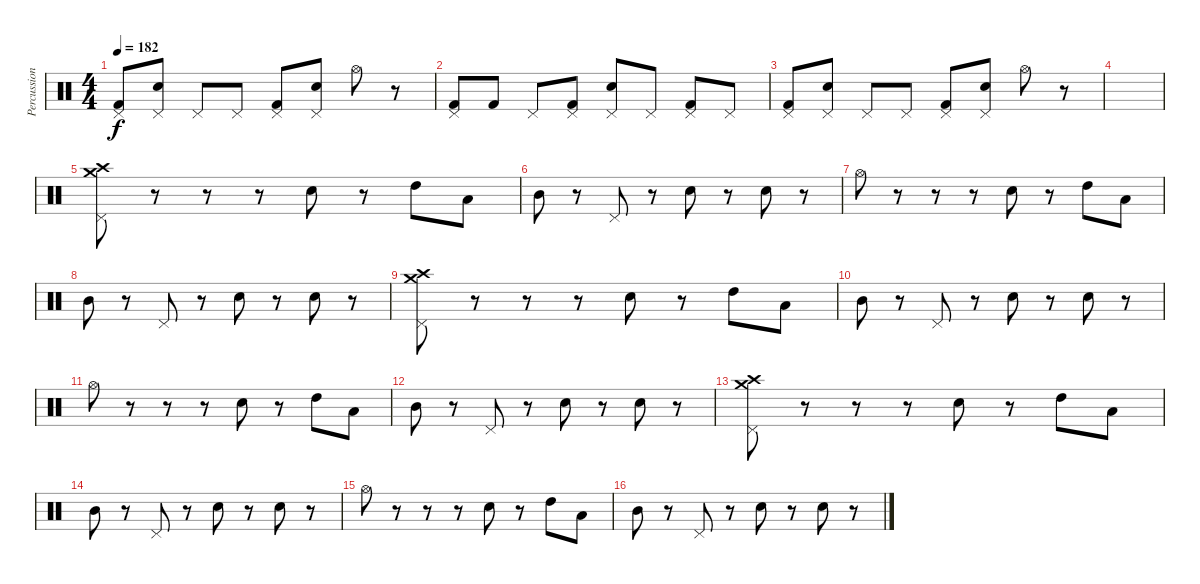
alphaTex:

\track ("Percussion" "Percussion") {instrument percussion}
\staff {score}
\articulation defaults
\ts (4 4)
\tempo 182
\clef neutral
\ks c
("Pedal Hi-Hat (hit)" "Kick (hit) 2").8{dy f} ("Pedal Hi-Hat (hit)" "Snare (hit) 2").8 "Pedal Hi-Hat (hit)".8 "Pedal Hi-Hat (hit)".8 ("Pedal Hi-Hat (hit)" "Kick (hit) 2").8 ("Pedal Hi-Hat (hit)" "Snare (hit) 2").8 "Hi-Hat (open)".8 r.8 |
("Pedal Hi-Hat (hit)" "Kick (hit) 2").8 "Kick (hit) 2".8 "Pedal Hi-Hat (hit)".8 ("Pedal Hi-Hat (hit)" "Kick (hit) 2").8 ("Pedal Hi-Hat (hit)" "Snare (hit) 2").8 "Pedal Hi-Hat (hit)".8 ("Pedal Hi-Hat (hit)" "Kick (hit) 2").8 "Pedal Hi-Hat (hit)".8 |
("Pedal Hi-Hat (hit)" "Kick (hit) 2").8 ("Pedal Hi-Hat (hit)" "Snare (hit) 2").8 "Pedal Hi-Hat (hit)".8 "Pedal Hi-Hat (hit)".8 ("Pedal Hi-Hat (hit)" "Kick (hit) 2").8 ("Pedal Hi-Hat (hit)" "Snare (hit) 2").8 "Hi-Hat (open)".8 r.8 |
|
("Crash high (hit)" "Crash medium (hit)" "Pedal Hi-Hat (hit)").8 r.8 r.8 r.8 "Snare (hit) 2".8 r.8 "High Tom (hit)".8 "Low Tom (hit)".8 |
"Mid Tom (hit)".8 r.8 "Pedal Hi-Hat (hit)".8 r.8 "Snare (hit) 2".8 r.8 "Snare (hit) 2".8 r.8 |
"Hi-Hat (open)".8 r.8 r.8 r.8 "Snare (hit) 2".8 r.8 "High Tom (hit)".8 "Low Tom (hit)".8 |
"Mid Tom (hit)".8 r.8 "Pedal Hi-Hat (hit)".8 r.8 "Snare (hit) 2".8 r.8 "Snare (hit) 2".8 r.8 |
("Crash high (hit)" "Crash medium (hit)" "Pedal Hi-Hat (hit)").8 r.8 r.8 r.8 "Snare (hit) 2".8 r.8 "High Tom (hit)".8 "Low Tom (hit)".8 |
"Mid Tom (hit)".8 r.8 "Pedal Hi-Hat (hit)".8 r.8 "Snare (hit) 2".8 r.8 "Snare (hit) 2".8 r.8 |
"Hi-Hat (open)".8 r.8 r.8 r.8 "Snare (hit) 2".8 r.8 "High Tom (hit)".8 "Low Tom (hit)".8 |
"Mid Tom (hit)".8 r.8 "Pedal Hi-Hat (hit)".8 r.8 "Snare (hit) 2".8 r.8 "Snare (hit) 2".8 r.8 |
("Crash high (hit)" "Crash medium (hit)" "Pedal Hi-Hat (hit)").8 r.8 r.8 r.8 "Snare (hit) 2".8 r.8 "High Tom (hit)".8 "Low Tom (hit)".8 |
"Mid Tom (hit)".8 r.8 "Pedal Hi-Hat (hit)".8 r.8 "Snare (hit) 2".8 r.8 "Snare (hit) 2".8 r.8 |
"Hi-Hat (open)".8 r.8 r.8 r.8 "Snare (hit) 2".8 r.8 "High Tom (hit)".8 "Low Tom (hit)".8 |
"Mid Tom (hit)".8 r.8 "Pedal Hi-Hat (hit)".8 r.8 "Snare (hit) 2".8 r.8 "Snare (hit) 2".8 r.8
